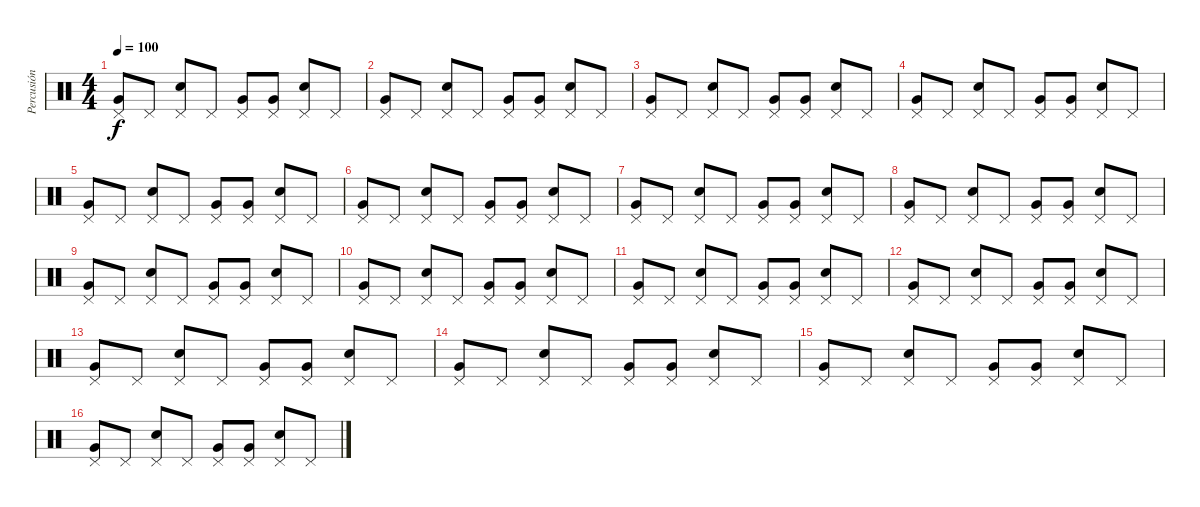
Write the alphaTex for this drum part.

\track ("Percusión" "Percusión") {instrument percussion}
\staff {score}
\articulation defaults
\ts (4 4)
\tempo 100
\clef neutral
\ks c
("Pedal Hi-Hat (hit)" "Very Low Tom (hit)").8{dy f} "Pedal Hi-Hat (hit)".8 ("Pedal Hi-Hat (hit)" "Snare (hit) 2").8 "Pedal Hi-Hat (hit)".8 ("Pedal Hi-Hat (hit)" "Very Low Tom (hit)").8 ("Pedal Hi-Hat (hit)" "Very Low Tom (hit)").8 ("Pedal Hi-Hat (hit)" "Snare (hit) 2").8 "Pedal Hi-Hat (hit)".8 |
("Pedal Hi-Hat (hit)" "Very Low Tom (hit)").8 "Pedal Hi-Hat (hit)".8 ("Pedal Hi-Hat (hit)" "Snare (hit) 2").8 "Pedal Hi-Hat (hit)".8 ("Pedal Hi-Hat (hit)" "Very Low Tom (hit)").8 ("Pedal Hi-Hat (hit)" "Very Low Tom (hit)").8 ("Pedal Hi-Hat (hit)" "Snare (hit) 2").8 "Pedal Hi-Hat (hit)".8 |
("Pedal Hi-Hat (hit)" "Very Low Tom (hit)").8 "Pedal Hi-Hat (hit)".8 ("Pedal Hi-Hat (hit)" "Snare (hit) 2").8 "Pedal Hi-Hat (hit)".8 ("Pedal Hi-Hat (hit)" "Very Low Tom (hit)").8 ("Pedal Hi-Hat (hit)" "Very Low Tom (hit)").8 ("Pedal Hi-Hat (hit)" "Snare (hit) 2").8 "Pedal Hi-Hat (hit)".8 |
("Pedal Hi-Hat (hit)" "Very Low Tom (hit)").8 "Pedal Hi-Hat (hit)".8 ("Pedal Hi-Hat (hit)" "Snare (hit) 2").8 "Pedal Hi-Hat (hit)".8 ("Pedal Hi-Hat (hit)" "Very Low Tom (hit)").8 ("Pedal Hi-Hat (hit)" "Very Low Tom (hit)").8 ("Pedal Hi-Hat (hit)" "Snare (hit) 2").8 "Pedal Hi-Hat (hit)".8 |
("Pedal Hi-Hat (hit)" "Very Low Tom (hit)").8 "Pedal Hi-Hat (hit)".8 ("Pedal Hi-Hat (hit)" "Snare (hit) 2").8 "Pedal Hi-Hat (hit)".8 ("Pedal Hi-Hat (hit)" "Very Low Tom (hit)").8 ("Pedal Hi-Hat (hit)" "Very Low Tom (hit)").8 ("Pedal Hi-Hat (hit)" "Snare (hit) 2").8 "Pedal Hi-Hat (hit)".8 |
("Pedal Hi-Hat (hit)" "Very Low Tom (hit)").8 "Pedal Hi-Hat (hit)".8 ("Pedal Hi-Hat (hit)" "Snare (hit) 2").8 "Pedal Hi-Hat (hit)".8 ("Pedal Hi-Hat (hit)" "Very Low Tom (hit)").8 ("Pedal Hi-Hat (hit)" "Very Low Tom (hit)").8 ("Pedal Hi-Hat (hit)" "Snare (hit) 2").8 "Pedal Hi-Hat (hit)".8 |
("Pedal Hi-Hat (hit)" "Very Low Tom (hit)").8 "Pedal Hi-Hat (hit)".8 ("Pedal Hi-Hat (hit)" "Snare (hit) 2").8 "Pedal Hi-Hat (hit)".8 ("Pedal Hi-Hat (hit)" "Very Low Tom (hit)").8 ("Pedal Hi-Hat (hit)" "Very Low Tom (hit)").8 ("Pedal Hi-Hat (hit)" "Snare (hit) 2").8 "Pedal Hi-Hat (hit)".8 |
("Pedal Hi-Hat (hit)" "Very Low Tom (hit)").8 "Pedal Hi-Hat (hit)".8 ("Pedal Hi-Hat (hit)" "Snare (hit) 2").8 "Pedal Hi-Hat (hit)".8 ("Pedal Hi-Hat (hit)" "Very Low Tom (hit)").8 ("Pedal Hi-Hat (hit)" "Very Low Tom (hit)").8 ("Pedal Hi-Hat (hit)" "Snare (hit) 2").8 "Pedal Hi-Hat (hit)".8 |
("Pedal Hi-Hat (hit)" "Very Low Tom (hit)").8 "Pedal Hi-Hat (hit)".8 ("Pedal Hi-Hat (hit)" "Snare (hit) 2").8 "Pedal Hi-Hat (hit)".8 ("Pedal Hi-Hat (hit)" "Very Low Tom (hit)").8 ("Pedal Hi-Hat (hit)" "Very Low Tom (hit)").8 ("Pedal Hi-Hat (hit)" "Snare (hit) 2").8 "Pedal Hi-Hat (hit)".8 |
("Pedal Hi-Hat (hit)" "Very Low Tom (hit)").8 "Pedal Hi-Hat (hit)".8 ("Pedal Hi-Hat (hit)" "Snare (hit) 2").8 "Pedal Hi-Hat (hit)".8 ("Pedal Hi-Hat (hit)" "Very Low Tom (hit)").8 ("Pedal Hi-Hat (hit)" "Very Low Tom (hit)").8 ("Pedal Hi-Hat (hit)" "Snare (hit) 2").8 "Pedal Hi-Hat (hit)".8 |
("Pedal Hi-Hat (hit)" "Very Low Tom (hit)").8 "Pedal Hi-Hat (hit)".8 ("Pedal Hi-Hat (hit)" "Snare (hit) 2").8 "Pedal Hi-Hat (hit)".8 ("Pedal Hi-Hat (hit)" "Very Low Tom (hit)").8 ("Pedal Hi-Hat (hit)" "Very Low Tom (hit)").8 ("Pedal Hi-Hat (hit)" "Snare (hit) 2").8 "Pedal Hi-Hat (hit)".8 |
("Pedal Hi-Hat (hit)" "Very Low Tom (hit)").8 "Pedal Hi-Hat (hit)".8 ("Pedal Hi-Hat (hit)" "Snare (hit) 2").8 "Pedal Hi-Hat (hit)".8 ("Pedal Hi-Hat (hit)" "Very Low Tom (hit)").8 ("Pedal Hi-Hat (hit)" "Very Low Tom (hit)").8 ("Pedal Hi-Hat (hit)" "Snare (hit) 2").8 "Pedal Hi-Hat (hit)".8 |
("Pedal Hi-Hat (hit)" "Very Low Tom (hit)").8 "Pedal Hi-Hat (hit)".8 ("Pedal Hi-Hat (hit)" "Snare (hit) 2").8 "Pedal Hi-Hat (hit)".8 ("Pedal Hi-Hat (hit)" "Very Low Tom (hit)").8 ("Pedal Hi-Hat (hit)" "Very Low Tom (hit)").8 ("Pedal Hi-Hat (hit)" "Snare (hit) 2").8 "Pedal Hi-Hat (hit)".8 |
("Pedal Hi-Hat (hit)" "Very Low Tom (hit)").8 "Pedal Hi-Hat (hit)".8 ("Pedal Hi-Hat (hit)" "Snare (hit) 2").8 "Pedal Hi-Hat (hit)".8 ("Pedal Hi-Hat (hit)" "Very Low Tom (hit)").8 ("Pedal Hi-Hat (hit)" "Very Low Tom (hit)").8 ("Pedal Hi-Hat (hit)" "Snare (hit) 2").8 "Pedal Hi-Hat (hit)".8 |
("Pedal Hi-Hat (hit)" "Very Low Tom (hit)").8 "Pedal Hi-Hat (hit)".8 ("Pedal Hi-Hat (hit)" "Snare (hit) 2").8 "Pedal Hi-Hat (hit)".8 ("Pedal Hi-Hat (hit)" "Very Low Tom (hit)").8 ("Pedal Hi-Hat (hit)" "Very Low Tom (hit)").8 ("Pedal Hi-Hat (hit)" "Snare (hit) 2").8 "Pedal Hi-Hat (hit)".8 |
("Pedal Hi-Hat (hit)" "Very Low Tom (hit)").8 "Pedal Hi-Hat (hit)".8 ("Pedal Hi-Hat (hit)" "Snare (hit) 2").8 "Pedal Hi-Hat (hit)".8 ("Pedal Hi-Hat (hit)" "Very Low Tom (hit)").8 ("Pedal Hi-Hat (hit)" "Very Low Tom (hit)").8 ("Pedal Hi-Hat (hit)" "Snare (hit) 2").8 "Pedal Hi-Hat (hit)".8
